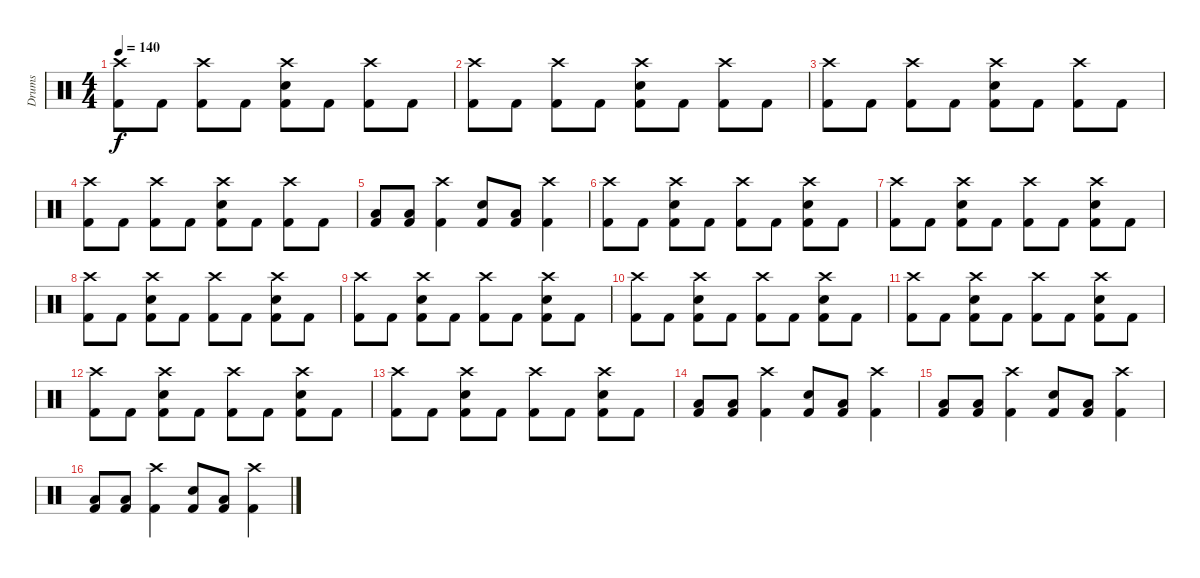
\track ("Drums" "Drums") {instrument percussion}
\staff {score}
\articulation defaults
\ts (4 4)
\tempo 140
\clef neutral
\ks c
("Crash high (hit)" "Kick (hit) 2").8{dy f} "Kick (hit) 2".8 ("Crash high (hit)" "Kick (hit) 2").8 "Kick (hit) 2".8 ("Crash high (hit)" "Electric Snare (hit)" "Kick (hit) 2").8 "Kick (hit) 2".8 ("Crash high (hit)" "Kick (hit) 2").8 "Kick (hit) 2".8 |
("Crash high (hit)" "Kick (hit) 2").8 "Kick (hit) 2".8 ("Crash high (hit)" "Kick (hit) 2").8 "Kick (hit) 2".8 ("Crash high (hit)" "Electric Snare (hit)" "Kick (hit) 2").8 "Kick (hit) 2".8 ("Crash high (hit)" "Kick (hit) 2").8 "Kick (hit) 2".8 |
("Crash high (hit)" "Kick (hit) 2").8 "Kick (hit) 2".8 ("Crash high (hit)" "Kick (hit) 2").8 "Kick (hit) 2".8 ("Crash high (hit)" "Electric Snare (hit)" "Kick (hit) 2").8 "Kick (hit) 2".8 ("Crash high (hit)" "Kick (hit) 2").8 "Kick (hit) 2".8 |
("Crash high (hit)" "Kick (hit) 2").8 "Kick (hit) 2".8 ("Crash high (hit)" "Kick (hit) 2").8 "Kick (hit) 2".8 ("Crash high (hit)" "Electric Snare (hit)" "Kick (hit) 2").8 "Kick (hit) 2".8 ("Crash high (hit)" "Kick (hit) 2").8 "Kick (hit) 2".8 |
("Low Floor Tom (hit)" "Kick (hit) 2").8 ("Low Floor Tom (hit)" "Kick (hit) 2").8 ("Crash high (hit)" "Kick (hit) 2").4 ("Electric Snare (hit)" "Kick (hit) 2").8 ("Low Floor Tom (hit)" "Kick (hit) 2").8 ("Crash high (hit)" "Kick (hit) 2").4 |
("Crash high (hit)" "Kick (hit) 2").8 "Kick (hit) 2".8 ("Crash high (hit)" "Electric Snare (hit)" "Kick (hit) 2").8 "Kick (hit) 2".8 ("Crash high (hit)" "Kick (hit) 2").8 "Kick (hit) 2".8 ("Crash high (hit)" "Electric Snare (hit)" "Kick (hit) 2").8 "Kick (hit) 2".8 |
("Crash high (hit)" "Kick (hit) 2").8 "Kick (hit) 2".8 ("Crash high (hit)" "Electric Snare (hit)" "Kick (hit) 2").8 "Kick (hit) 2".8 ("Crash high (hit)" "Kick (hit) 2").8 "Kick (hit) 2".8 ("Crash high (hit)" "Electric Snare (hit)" "Kick (hit) 2").8 "Kick (hit) 2".8 |
("Crash high (hit)" "Kick (hit) 2").8 "Kick (hit) 2".8 ("Crash high (hit)" "Electric Snare (hit)" "Kick (hit) 2").8 "Kick (hit) 2".8 ("Crash high (hit)" "Kick (hit) 2").8 "Kick (hit) 2".8 ("Crash high (hit)" "Electric Snare (hit)" "Kick (hit) 2").8 "Kick (hit) 2".8 |
("Crash high (hit)" "Kick (hit) 2").8 "Kick (hit) 2".8 ("Crash high (hit)" "Electric Snare (hit)" "Kick (hit) 2").8 "Kick (hit) 2".8 ("Crash high (hit)" "Kick (hit) 2").8 "Kick (hit) 2".8 ("Crash high (hit)" "Electric Snare (hit)" "Kick (hit) 2").8 "Kick (hit) 2".8 |
("Crash high (hit)" "Kick (hit) 2").8 "Kick (hit) 2".8 ("Crash high (hit)" "Electric Snare (hit)" "Kick (hit) 2").8 "Kick (hit) 2".8 ("Crash high (hit)" "Kick (hit) 2").8 "Kick (hit) 2".8 ("Crash high (hit)" "Electric Snare (hit)" "Kick (hit) 2").8 "Kick (hit) 2".8 |
("Crash high (hit)" "Kick (hit) 2").8 "Kick (hit) 2".8 ("Crash high (hit)" "Electric Snare (hit)" "Kick (hit) 2").8 "Kick (hit) 2".8 ("Crash high (hit)" "Kick (hit) 2").8 "Kick (hit) 2".8 ("Crash high (hit)" "Electric Snare (hit)" "Kick (hit) 2").8 "Kick (hit) 2".8 |
("Crash high (hit)" "Kick (hit) 2").8 "Kick (hit) 2".8 ("Crash high (hit)" "Electric Snare (hit)" "Kick (hit) 2").8 "Kick (hit) 2".8 ("Crash high (hit)" "Kick (hit) 2").8 "Kick (hit) 2".8 ("Crash high (hit)" "Electric Snare (hit)" "Kick (hit) 2").8 "Kick (hit) 2".8 |
("Crash high (hit)" "Kick (hit) 2").8 "Kick (hit) 2".8 ("Crash high (hit)" "Electric Snare (hit)" "Kick (hit) 2").8 "Kick (hit) 2".8 ("Crash high (hit)" "Kick (hit) 2").8 "Kick (hit) 2".8 ("Crash high (hit)" "Electric Snare (hit)" "Kick (hit) 2").8 "Kick (hit) 2".8 |
("Low Floor Tom (hit)" "Kick (hit) 2").8 ("Low Floor Tom (hit)" "Kick (hit) 2").8 ("Crash high (hit)" "Kick (hit) 2").4 ("Electric Snare (hit)" "Kick (hit) 2").8 ("Low Floor Tom (hit)" "Kick (hit) 2").8 ("Crash high (hit)" "Kick (hit) 2").4 |
("Low Floor Tom (hit)" "Kick (hit) 2").8 ("Low Floor Tom (hit)" "Kick (hit) 2").8 ("Crash high (hit)" "Kick (hit) 2").4 ("Electric Snare (hit)" "Kick (hit) 2").8 ("Low Floor Tom (hit)" "Kick (hit) 2").8 ("Crash high (hit)" "Kick (hit) 2").4 |
("Low Floor Tom (hit)" "Kick (hit) 2").8 ("Low Floor Tom (hit)" "Kick (hit) 2").8 ("Crash high (hit)" "Kick (hit) 2").4 ("Electric Snare (hit)" "Kick (hit) 2").8 ("Low Floor Tom (hit)" "Kick (hit) 2").8 ("Crash high (hit)" "Kick (hit) 2").4
